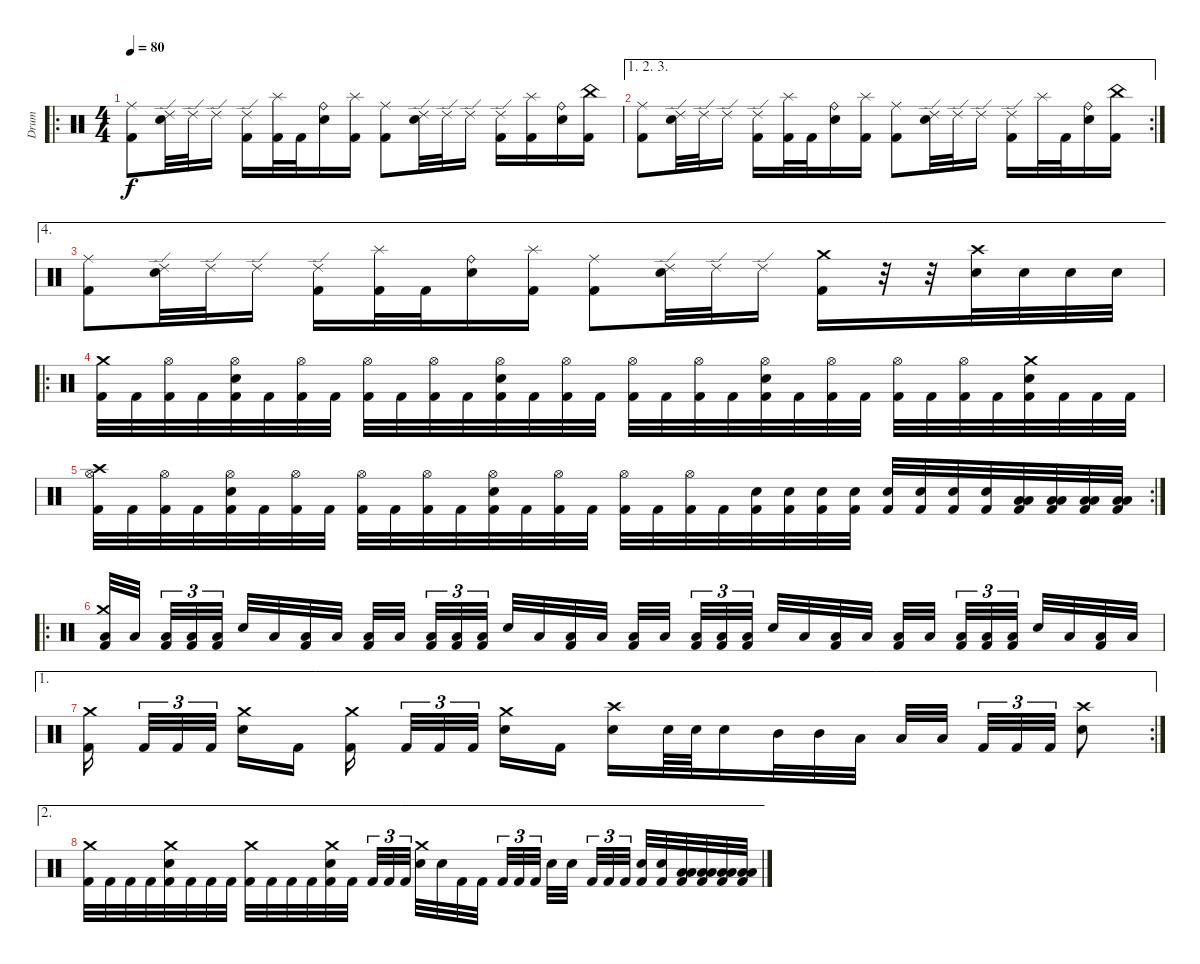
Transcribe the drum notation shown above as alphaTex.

\track ("Drum" "Drum") {instrument percussion}
\staff {score}
\articulation defaults
\ro
\ts (4 4)
\section ("" "")
\tempo 80
\clef neutral
\ks c
("Ride (middle)" "Kick (hit) 2").8{dy f volume 16} ("Ride (edge) 2" "Electric Snare (hit)").32 "Ride (edge) 2".32 "Ride (edge) 2".16 ("Ride (edge) 2" "Kick (hit) 2").16 ("Splash (hit)" "Kick (hit) 2").32 "Kick (hit) 2".32 ("Ride (bell)" "Electric Snare (hit)").16 ("Splash (hit)" "Kick (hit) 2").16 ("Ride (middle)" "Kick (hit) 2").8 ("Ride (edge) 2" "Electric Snare (hit)").32 "Ride (edge) 2".32 "Ride (edge) 2".16 ("Ride (edge) 2" "Kick (hit) 2").16 ("Splash (hit)" "Kick (hit) 2").16 ("Ride (bell)" "Electric Snare (hit)").16 ("China (hit)" "Kick (hit) 2").16 |
\ae (1 2 3)
\rc 2
("Ride (middle)" "Kick (hit) 2").8 ("Ride (edge) 2" "Electric Snare (hit)").32 "Ride (edge) 2".32 "Ride (edge) 2".16 ("Ride (edge) 2" "Kick (hit) 2").16 ("Splash (hit)" "Kick (hit) 2").32 "Kick (hit) 2".32 ("Ride (bell)" "Electric Snare (hit)").16 ("Splash (hit)" "Kick (hit) 2").16 ("Ride (middle)" "Kick (hit) 2").8 ("Ride (edge) 2" "Electric Snare (hit)").32 "Ride (edge) 2".32 "Ride (edge) 2".16 ("Ride (edge) 2" "Kick (hit) 2").16 "Splash (hit)".32 "Kick (hit) 2".32 ("Ride (bell)" "Electric Snare (hit)").16 ("China (hit)" "Kick (hit) 2").16 |
\ae 4
("Ride (middle)" "Kick (hit) 2").8 ("Ride (edge) 2" "Electric Snare (hit)").32 "Ride (edge) 2".32 "Ride (edge) 2".16 ("Ride (edge) 2" "Kick (hit) 2").16 ("Splash (hit)" "Kick (hit) 2").32 "Kick (hit) 2".32 ("Ride (bell)" "Electric Snare (hit)").16 ("Splash (hit)" "Kick (hit) 2").16 ("Ride (middle)" "Kick (hit) 2").8 ("Ride (edge) 2" "Electric Snare (hit)").32 "Ride (edge) 2".32 "Ride (edge) 2".16 ("Crash medium (hit)" "Kick (hit) 2").16 r.32 r.32 ("Crash high (hit)" "Electric Snare (hit)").32 "Electric Snare (hit)".32 "Electric Snare (hit)".32 "Electric Snare (hit)".32 |
\ro
\section ("" "")
("Crash medium (hit)" "Kick (hit) 2").32 "Kick (hit) 2".32 ("Hi-Hat (open)" "Kick (hit) 2").32 "Kick (hit) 2".32 ("Hi-Hat (open)" "Electric Snare (hit)" "Kick (hit) 2").32 "Kick (hit) 2".32 ("Hi-Hat (open)" "Kick (hit) 2").32 "Kick (hit) 2".32 ("Hi-Hat (open)" "Kick (hit) 2").32 "Kick (hit) 2".32 ("Hi-Hat (open)" "Kick (hit) 2").32 "Kick (hit) 2".32 ("Hi-Hat (open)" "Electric Snare (hit)" "Kick (hit) 2").32 "Kick (hit) 2".32 ("Hi-Hat (open)" "Kick (hit) 2").32 "Kick (hit) 2".32 ("Hi-Hat (open)" "Kick (hit) 2").32 "Kick (hit) 2".32 ("Hi-Hat (open)" "Kick (hit) 2").32 "Kick (hit) 2".32 ("Hi-Hat (open)" "Electric Snare (hit)" "Kick (hit) 2").32 "Kick (hit) 2".32 ("Hi-Hat (open)" "Kick (hit) 2").32 "Kick (hit) 2".32 ("Hi-Hat (open)" "Kick (hit) 2").32 "Kick (hit) 2".32 ("Hi-Hat (open)" "Kick (hit) 2").32 "Kick (hit) 2".32 ("Crash medium (hit)" "Electric Snare (hit)" "Kick (hit) 2").32 "Kick (hit) 2".32 "Kick (hit) 2".32 "Kick (hit) 2".32 |
\rc 2
("Crash high (hit)" "Hi-Hat (open)" "Kick (hit) 2").32 "Kick (hit) 2".32 ("Hi-Hat (open)" "Kick (hit) 2").32 "Kick (hit) 2".32 ("Hi-Hat (open)" "Electric Snare (hit)" "Kick (hit) 2").32 "Kick (hit) 2".32 ("Hi-Hat (open)" "Kick (hit) 2").32 "Kick (hit) 2".32 ("Hi-Hat (open)" "Kick (hit) 2").32 "Kick (hit) 2".32 ("Hi-Hat (open)" "Kick (hit) 2").32 "Kick (hit) 2".32 ("Hi-Hat (open)" "Electric Snare (hit)" "Kick (hit) 2").32 "Kick (hit) 2".32 ("Hi-Hat (open)" "Kick (hit) 2").32 "Kick (hit) 2".32 ("Hi-Hat (open)" "Kick (hit) 2").32 "Kick (hit) 2".32 ("Hi-Hat (open)" "Kick (hit) 2").32 "Kick (hit) 2".32 ("Electric Snare (hit)" "Kick (hit) 2").32 ("Electric Snare (hit)" "Kick (hit) 2").32 ("Electric Snare (hit)" "Kick (hit) 2").32 ("Electric Snare (hit)" "Kick (hit) 2").32 ("Electric Snare (hit)" "Kick (hit) 2").32 ("Electric Snare (hit)" "Kick (hit) 2").32 ("Electric Snare (hit)" "Kick (hit) 2").32 ("Electric Snare (hit)" "Kick (hit) 2").32 ("Low Tom (hit)" "Low Tom (hit)" "Kick (hit) 2").32 ("Low Tom (hit)" "Low Tom (hit)" "Kick (hit) 2").32 ("Low Tom (hit)" "Low Tom (hit)" "Kick (hit) 2").32 ("Low Tom (hit)" "Low Tom (hit)" "Kick (hit) 2").32 |
\ro
\section ("" "")
("Crash medium (hit)" "Low Tom (hit)" "Kick (hit) 2").32 "Low Tom (hit)".32 ("Low Tom (hit)" "Kick (hit) 2").32{tu (3 2)} ("Low Tom (hit)" "Kick (hit) 2").32{tu (3 2)} ("Low Tom (hit)" "Kick (hit) 2").32{tu (3 2)} "Electric Snare (hit)".32 "Low Tom (hit)".32 ("Low Tom (hit)" "Kick (hit) 2").32 "Low Tom (hit)".32 ("Low Tom (hit)" "Kick (hit) 2").32 "Low Tom (hit)".32 ("Low Tom (hit)" "Kick (hit) 2").32{tu (3 2)} ("Low Tom (hit)" "Kick (hit) 2").32{tu (3 2)} ("Low Tom (hit)" "Kick (hit) 2").32{tu (3 2)} "Electric Snare (hit)".32 "Low Tom (hit)".32 ("Low Tom (hit)" "Kick (hit) 2").32 "Low Tom (hit)".32 ("Low Tom (hit)" "Kick (hit) 2").32 "Low Tom (hit)".32 ("Low Tom (hit)" "Kick (hit) 2").32{tu (3 2)} ("Low Tom (hit)" "Kick (hit) 2").32{tu (3 2)} ("Low Tom (hit)" "Kick (hit) 2").32{tu (3 2)} "Electric Snare (hit)".32 "Low Tom (hit)".32 ("Low Tom (hit)" "Kick (hit) 2").32 "Low Tom (hit)".32 ("Low Tom (hit)" "Kick (hit) 2").32 "Low Tom (hit)".32 ("Low Tom (hit)" "Kick (hit) 2").32{tu (3 2)} ("Low Tom (hit)" "Kick (hit) 2").32{tu (3 2)} ("Low Tom (hit)" "Kick (hit) 2").32{tu (3 2)} "Electric Snare (hit)".32 "Low Tom (hit)".32 ("Low Tom (hit)" "Kick (hit) 2").32 "Low Tom (hit)".32 |
\ae 1
\rc 2
("Crash medium (hit)" "Kick (hit) 2").16 "Kick (hit) 2".32{tu (3 2)} "Kick (hit) 2".32{tu (3 2)} "Kick (hit) 2".32{tu (3 2)} ("Crash medium (hit)" "Electric Snare (hit)").16 "Kick (hit) 2".16 ("Crash medium (hit)" "Kick (hit) 2").16 "Kick (hit) 2".32{tu (3 2)} "Kick (hit) 2".32{tu (3 2)} "Kick (hit) 2".32{tu (3 2)} ("Crash medium (hit)" "Electric Snare (hit)").16 "Kick (hit) 2".16 ("Crash high (hit)" "Electric Snare (hit)").16 "Electric Snare (hit)".64 "Electric Snare (hit)".64 "Electric Snare (hit)".16 "Mid Tom (hit)".32 "Mid Tom (hit)".32 "Low Tom (hit)".32 "Low Tom (hit)".32 "Low Tom (hit)".32 "Kick (hit) 2".32{tu (3 2)} "Kick (hit) 2".32{tu (3 2)} "Kick (hit) 2".32{tu (3 2)} ("Crash high (hit)" "Electric Snare (hit)").8 |
\ae 2
("Crash medium (hit)" "Kick (hit) 2").32 "Kick (hit) 2".32 "Kick (hit) 2".32 "Kick (hit) 2".32 ("Crash medium (hit)" "Electric Snare (hit)" "Kick (hit) 2").32 "Kick (hit) 2".32 "Kick (hit) 2".32 "Kick (hit) 2".32 ("Crash medium (hit)" "Kick (hit) 2").32 "Kick (hit) 2".32 "Kick (hit) 2".32 "Kick (hit) 2".32 ("Crash medium (hit)" "Electric Snare (hit)" "Kick (hit) 2").32 "Kick (hit) 2".32 "Kick (hit) 2".32{tu (3 2)} "Kick (hit) 2".32{tu (3 2)} "Kick (hit) 2".32{tu (3 2)} ("Crash medium (hit)" "Electric Snare (hit)").32 "Electric Snare (hit)".32 "Kick (hit) 2".32 "Kick (hit) 2".32 "Kick (hit) 2".32{tu (3 2)} "Kick (hit) 2".32{tu (3 2)} "Kick (hit) 2".32{tu (3 2)} "Electric Snare (hit)".32 "Electric Snare (hit)".32 "Kick (hit) 2".32{tu (3 2)} "Kick (hit) 2".32{tu (3 2)} "Kick (hit) 2".32{tu (3 2)} ("Electric Snare (hit)" "Kick (hit) 2").32 ("Electric Snare (hit)" "Kick (hit) 2").32 ("Low Tom (hit)" "Low Tom (hit)" "Kick (hit) 2").32 ("Low Tom (hit)" "Low Tom (hit)" "Kick (hit) 2").32 ("Low Tom (hit)" "Low Tom (hit)" "Kick (hit) 2").32 ("Low Tom (hit)" "Low Tom (hit)" "Kick (hit) 2").32
